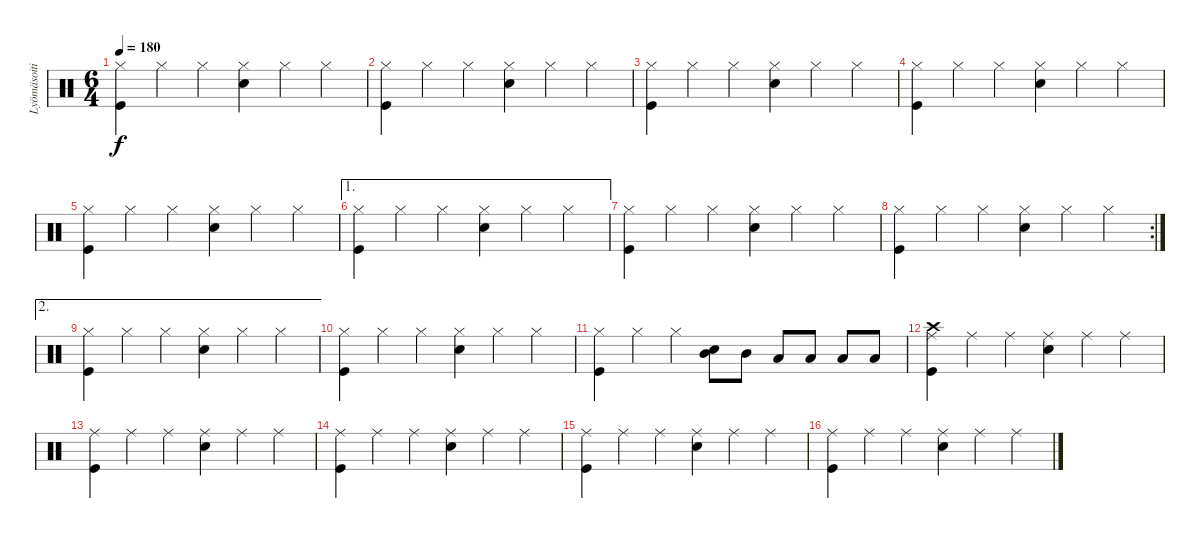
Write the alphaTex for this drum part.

\track ("Lyömäsoitin" "Lyömäsoiti") {instrument percussion}
\staff {score}
\articulation defaults
\ts (6 4)
\tempo 180
\clef neutral
\ks c
("Kick (hit)" "Hi-Hat (closed)").4{dy f} "Hi-Hat (closed)".4 "Hi-Hat (closed)".4 ("Snare (hit) 2" "Hi-Hat (closed)").4 "Hi-Hat (closed)".4 "Hi-Hat (closed)".4 |
("Kick (hit)" "Hi-Hat (closed)").4 "Hi-Hat (closed)".4 "Hi-Hat (closed)".4 ("Snare (hit) 2" "Hi-Hat (closed)").4 "Hi-Hat (closed)".4 "Hi-Hat (closed)".4 |
("Kick (hit)" "Hi-Hat (closed)").4 "Hi-Hat (closed)".4 "Hi-Hat (closed)".4 ("Snare (hit) 2" "Hi-Hat (closed)").4 "Hi-Hat (closed)".4 "Hi-Hat (closed)".4 |
("Kick (hit)" "Hi-Hat (closed)").4 "Hi-Hat (closed)".4 "Hi-Hat (closed)".4 ("Snare (hit) 2" "Hi-Hat (closed)").4 "Hi-Hat (closed)".4 "Hi-Hat (closed)".4 |
("Kick (hit)" "Hi-Hat (closed)").4 "Hi-Hat (closed)".4 "Hi-Hat (closed)".4 ("Snare (hit) 2" "Hi-Hat (closed)").4 "Hi-Hat (closed)".4 "Hi-Hat (closed)".4 |
\ae 1
("Kick (hit)" "Hi-Hat (closed)").4 "Hi-Hat (closed)".4 "Hi-Hat (closed)".4 ("Snare (hit) 2" "Hi-Hat (closed)").4 "Hi-Hat (closed)".4 "Hi-Hat (closed)".4 |
("Kick (hit)" "Hi-Hat (closed)").4 "Hi-Hat (closed)".4 "Hi-Hat (closed)".4 ("Snare (hit) 2" "Hi-Hat (closed)").4 "Hi-Hat (closed)".4 "Hi-Hat (closed)".4 |
\rc 2
("Kick (hit)" "Hi-Hat (closed)").4 "Hi-Hat (closed)".4 "Hi-Hat (closed)".4 ("Snare (hit) 2" "Hi-Hat (closed)").4 "Hi-Hat (closed)".4 "Hi-Hat (closed)".4 |
\ae 2
("Kick (hit)" "Hi-Hat (closed)").4 "Hi-Hat (closed)".4 "Hi-Hat (closed)".4 ("Snare (hit) 2" "Hi-Hat (closed)").4 "Hi-Hat (closed)".4 "Hi-Hat (closed)".4 |
("Kick (hit)" "Hi-Hat (closed)").4 "Hi-Hat (closed)".4 "Hi-Hat (closed)".4 ("Snare (hit) 2" "Hi-Hat (closed)").4 "Hi-Hat (closed)".4 "Hi-Hat (closed)".4 |
("Kick (hit)" "Hi-Hat (closed)").4 "Hi-Hat (closed)".4 "Hi-Hat (closed)".4 ("Snare (hit) 2" "Mid Tom (hit)").8 "Mid Tom (hit)".8 "Low Tom (hit)".8 "Low Tom (hit)".8 "Low Floor Tom (hit)".8 "Low Floor Tom (hit)".8 |
("Kick (hit)" "Ride (middle)" "Crash high (hit)").4 "Ride (middle)".4 "Ride (middle)".4 ("Snare (hit) 2" "Ride (middle)").4 "Ride (middle)".4 "Ride (middle)".4 |
("Kick (hit)" "Ride (middle)").4 "Ride (middle)".4 "Ride (middle)".4 ("Snare (hit) 2" "Ride (middle)").4 "Ride (middle)".4 "Ride (middle)".4 |
("Kick (hit)" "Ride (middle)").4 "Ride (middle)".4 "Ride (middle)".4 ("Snare (hit) 2" "Ride (middle)").4 "Ride (middle)".4 "Ride (middle)".4 |
("Kick (hit)" "Ride (middle)").4 "Ride (middle)".4 "Ride (middle)".4 ("Snare (hit) 2" "Ride (middle)").4 "Ride (middle)".4 "Ride (middle)".4 |
("Kick (hit)" "Ride (middle)").4 "Ride (middle)".4 "Ride (middle)".4 ("Snare (hit) 2" "Ride (middle)").4 "Ride (middle)".4 "Ride (middle)".4
